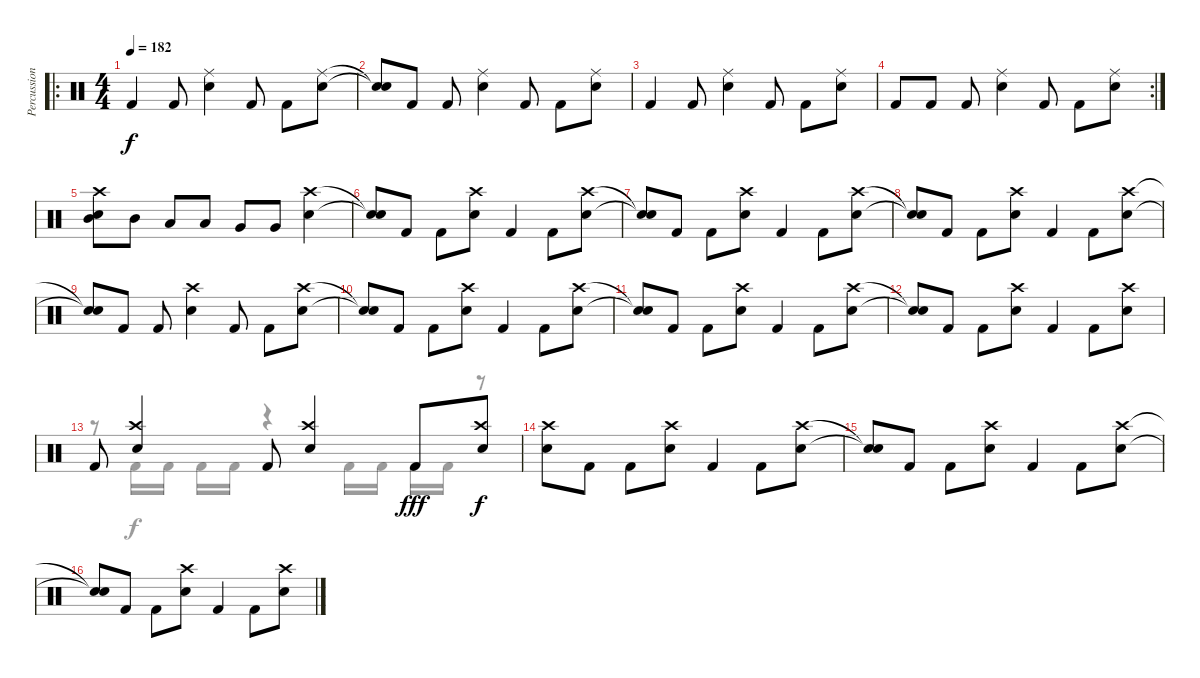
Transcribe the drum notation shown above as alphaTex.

\track ("Percussion" "Percussion") {instrument percussion}
\staff {score}
\articulation defaults
\voice
\ro
\ts (4 4)
\tempo 182
\clef neutral
\ks c "Kick (hit) 2".4{dy f} "Kick (hit) 2".8
("Ride (middle)" "Snare (hit) 2").4 "Kick (hit) 2".8 "Kick (hit) 2".8 ("Ride (middle)" "Snare (hit) 2").8 |
("Snare (hit)"{t} "Snare (hit)"{t}).8 "Kick (hit) 2".8 "Kick (hit) 2".8 ("Ride (middle)" "Snare (hit) 2").4 "Kick (hit) 2".8 "Kick (hit) 2".8 ("Ride (middle)" "Snare (hit) 2").8 |
"Kick (hit) 2".4 "Kick (hit) 2".8 ("Ride (middle)" "Snare (hit) 2").4 "Kick (hit) 2".8 "Kick (hit) 2".8 ("Ride (middle)" "Snare (hit) 2").8 |
\rc 2 "Kick (hit) 2".8 "Kick (hit) 2".8 "Kick (hit) 2".8
("Ride (middle)" "Snare (hit) 2").4 "Kick (hit) 2".8 "Kick (hit) 2".8 ("Ride (middle)" "Snare (hit) 2").8 |
("Crash high (hit)" "Snare (hit) 2" "Mid Tom (hit)").8 "Mid Tom (hit)".8 "Low Tom (hit)".8 "Low Tom (hit)".8 "Very Low Tom (hit)".8 "Very Low Tom (hit)".8 ("Crash high (hit)" "Snare (hit) 2").4 |
("Snare (hit)"{t} "Snare (hit)"{t}).8 "Kick (hit) 2".8 "Kick (hit) 2".8 ("Crash high (hit)" "Snare (hit) 2").8 "Kick (hit) 2".4 "Kick (hit) 2".8 ("Crash high (hit)" "Snare (hit) 2").8 |
("Snare (hit)"{t} "Snare (hit)"{t}).8 "Kick (hit) 2".8 "Kick (hit) 2".8 ("Crash high (hit)" "Snare (hit) 2").8 "Kick (hit) 2".4 "Kick (hit) 2".8 ("Crash high (hit)" "Snare (hit) 2").8 |
("Snare (hit)"{t} "Snare (hit)"{t}).8 "Kick (hit) 2".8 "Kick (hit) 2".8 ("Crash high (hit)" "Snare (hit) 2").8 "Kick (hit) 2".4 "Kick (hit) 2".8 ("Crash high (hit)" "Snare (hit) 2").8 |
("Snare (hit)"{t} "Snare (hit)"{t}).8 "Kick (hit) 2".8 "Kick (hit) 2".8 ("Crash high (hit)" "Snare (hit) 2").4 "Kick (hit) 2".8 "Kick (hit) 2".8 ("Crash high (hit)" "Snare (hit) 2").8 |
("Snare (hit)"{t} "Snare (hit)"{t}).8 "Kick (hit) 2".8 "Kick (hit) 2".8 ("Crash high (hit)" "Snare (hit) 2").8 "Kick (hit) 2".4 "Kick (hit) 2".8 ("Crash high (hit)" "Snare (hit) 2").8 |
("Snare (hit)"{t} "Snare (hit)"{t}).8 "Kick (hit) 2".8 "Kick (hit) 2".8 ("Crash high (hit)" "Snare (hit) 2").8 "Kick (hit) 2".4 "Kick (hit) 2".8 ("Crash high (hit)" "Snare (hit) 2").8 |
("Snare (hit)"{t} "Snare (hit)"{t}).8 "Kick (hit) 2".8 "Kick (hit) 2".8 ("Crash high (hit)" "Snare (hit) 2").8 "Kick (hit) 2".4 "Kick (hit) 2".8 ("Crash high (hit)" "Snare (hit) 2").8 |
"Kick (hit) 2".8 ("Crash high (hit)" "Snare (hit) 2").4 "Kick (hit) 2".8 ("Crash high (hit)" "Snare (hit) 2").4 "Kick (hit) 2".8{dy fff} ("Crash high (hit)" "Snare (hit) 2").8{dy f} |
("Crash high (hit)" "Snare (hit) 2").8 "Kick (hit) 2".8 "Kick (hit) 2".8 ("Crash high (hit)" "Snare (hit) 2").8 "Kick (hit) 2".4 "Kick (hit) 2".8 ("Crash high (hit)" "Snare (hit) 2").8 |
("Snare (hit)"{t} "Snare (hit)"{t}).8 "Kick (hit) 2".8 "Kick (hit) 2".8 ("Crash high (hit)" "Snare (hit) 2").8 "Kick (hit) 2".4 "Kick (hit) 2".8 ("Crash high (hit)" "Snare (hit) 2").8 |
("Snare (hit)"{t} "Snare (hit)"{t}).8 "Kick (hit) 2".8 "Kick (hit) 2".8 ("Crash high (hit)" "Snare (hit) 2").8 "Kick (hit) 2".4 "Kick (hit) 2".8 ("Crash high (hit)" "Snare (hit) 2").8
\voice
\clef neutral
\ottava regular
\simile none
\ks c
|
|
|
|
|
|
|
|
|
|
|
|
r.8 "Kick (hit) 2".16 "Kick (hit) 2".16 "Kick (hit) 2".16 "Kick (hit) 2".16 r.4 "Kick (hit) 2".16 "Kick (hit) 2".16 "Kick (hit) 2".16 "Kick (hit) 2".16 r.8 |
|
|
